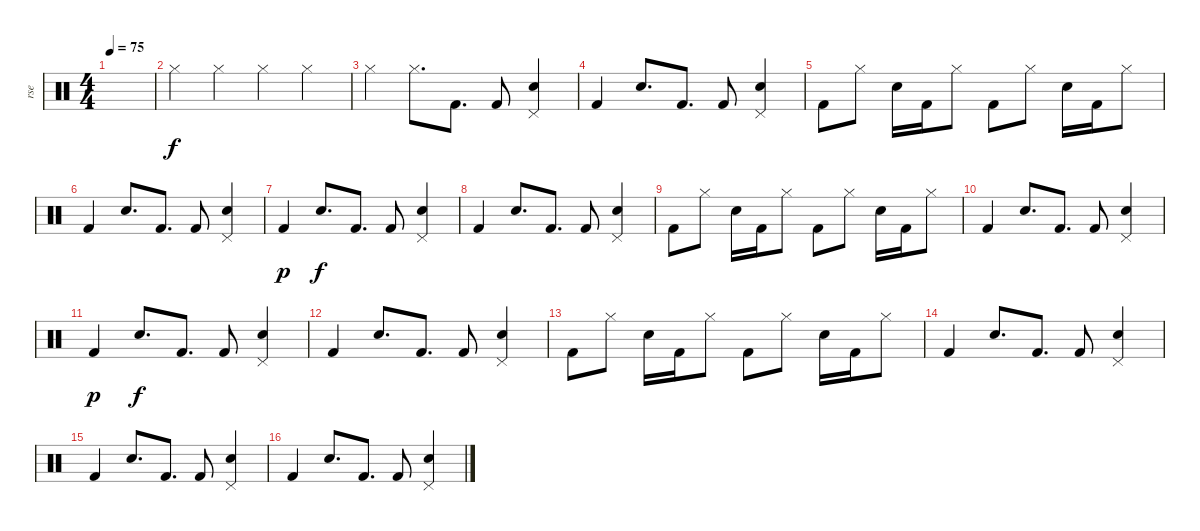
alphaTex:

\track ("rse" "rse") {instrument percussion}
\staff {score}
\articulation defaults
\ts (4 4)
\tempo 75
\clef neutral
\ks c
|
"Hi-Hat (closed)".4 "Hi-Hat (closed)".4 "Hi-Hat (closed)".4 "Hi-Hat (closed)".4 |
"Hi-Hat (closed)".4 "Hi-Hat (closed)".8{d} "Kick (hit) 2".8{d dy f} "Kick (hit) 2".8 ("Electric Snare (hit)" "Pedal Hi-Hat (hit)").4 |
"Kick (hit) 2".4 "Electric Snare (hit)".8{d} "Kick (hit) 2".8{d} "Kick (hit) 2".8 ("Electric Snare (hit)" "Pedal Hi-Hat (hit)").4 |
"Kick (hit) 2".8 "Hi-Hat (closed)".8 "Electric Snare (hit)".16 "Kick (hit) 2".16 "Hi-Hat (closed)".8 "Kick (hit) 2".8 "Hi-Hat (closed)".8 "Electric Snare (hit)".16 "Kick (hit) 2".16 "Hi-Hat (closed)".8 |
"Kick (hit) 2".4 "Electric Snare (hit)".8{d} "Kick (hit) 2".8{d} "Kick (hit) 2".8 ("Electric Snare (hit)" "Pedal Hi-Hat (hit)").4 |
"Kick (hit) 2".4{dy p} "Electric Snare (hit)".8{d dy f} "Kick (hit) 2".8{d} "Kick (hit) 2".8 ("Electric Snare (hit)" "Pedal Hi-Hat (hit)").4 |
"Kick (hit) 2".4 "Electric Snare (hit)".8{d} "Kick (hit) 2".8{d} "Kick (hit) 2".8 ("Electric Snare (hit)" "Pedal Hi-Hat (hit)").4 |
"Kick (hit) 2".8 "Hi-Hat (closed)".8 "Electric Snare (hit)".16 "Kick (hit) 2".16 "Hi-Hat (closed)".8 "Kick (hit) 2".8 "Hi-Hat (closed)".8 "Electric Snare (hit)".16 "Kick (hit) 2".16 "Hi-Hat (closed)".8 |
"Kick (hit) 2".4 "Electric Snare (hit)".8{d} "Kick (hit) 2".8{d} "Kick (hit) 2".8 ("Electric Snare (hit)" "Pedal Hi-Hat (hit)").4 |
"Kick (hit) 2".4{dy p} "Electric Snare (hit)".8{d dy f} "Kick (hit) 2".8{d} "Kick (hit) 2".8 ("Electric Snare (hit)" "Pedal Hi-Hat (hit)").4 |
"Kick (hit) 2".4 "Electric Snare (hit)".8{d} "Kick (hit) 2".8{d} "Kick (hit) 2".8 ("Electric Snare (hit)" "Pedal Hi-Hat (hit)").4 |
"Kick (hit) 2".8 "Hi-Hat (closed)".8 "Electric Snare (hit)".16 "Kick (hit) 2".16 "Hi-Hat (closed)".8 "Kick (hit) 2".8 "Hi-Hat (closed)".8 "Electric Snare (hit)".16 "Kick (hit) 2".16 "Hi-Hat (closed)".8 |
"Kick (hit) 2".4 "Electric Snare (hit)".8{d} "Kick (hit) 2".8{d} "Kick (hit) 2".8 ("Electric Snare (hit)" "Pedal Hi-Hat (hit)").4 |
"Kick (hit) 2".4 "Electric Snare (hit)".8{d} "Kick (hit) 2".8{d} "Kick (hit) 2".8 ("Electric Snare (hit)" "Pedal Hi-Hat (hit)").4 |
"Kick (hit) 2".4 "Electric Snare (hit)".8{d} "Kick (hit) 2".8{d} "Kick (hit) 2".8 ("Electric Snare (hit)" "Pedal Hi-Hat (hit)").4
